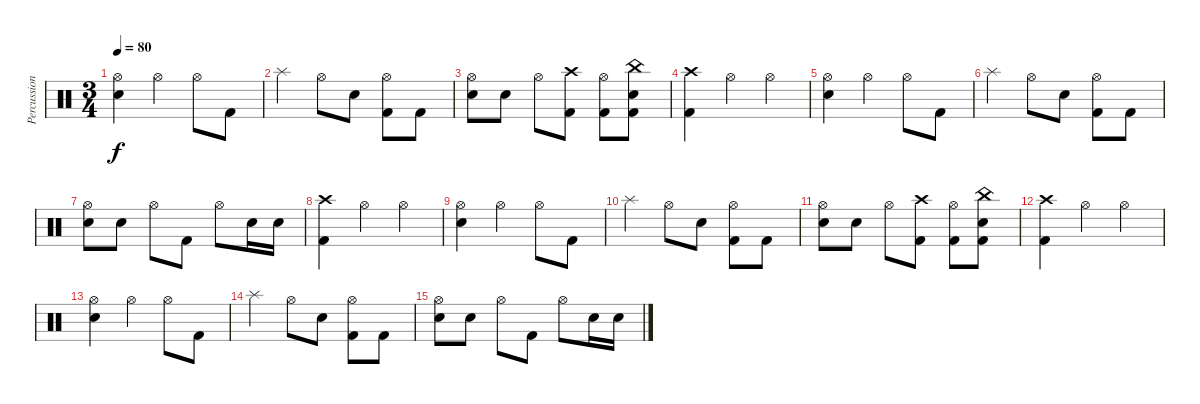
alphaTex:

\track ("Percussion" "Percussion") {instrument percussion}
\staff {score}
\articulation defaults
\ts (3 4)
\tempo 80
\clef neutral
\ks c
("Hi-Hat (open)" "Electric Snare (hit)").4{dy f} "Hi-Hat (open)".4 "Hi-Hat (open)".8 "Kick (hit) 2".8 |
"Splash (hit)".4 "Hi-Hat (open)".8 "Electric Snare (hit)".8 ("Hi-Hat (open)" "Kick (hit) 2").8 "Kick (hit) 2".8 |
("Hi-Hat (open)" "Electric Snare (hit)").8 "Electric Snare (hit)".8 "Hi-Hat (open)".8 ("Crash high (hit)" "Kick (hit) 2").8 ("Hi-Hat (open)" "Kick (hit) 2").8 ("China (hit)" "Electric Snare (hit)" "Kick (hit) 2").8 |
("Crash high (hit)" "Kick (hit) 2").4 "Hi-Hat (open)".4 "Hi-Hat (open)".4 |
("Hi-Hat (open)" "Electric Snare (hit)").4 "Hi-Hat (open)".4 "Hi-Hat (open)".8 "Kick (hit) 2".8 |
"Splash (hit)".4 "Hi-Hat (open)".8 "Electric Snare (hit)".8 ("Hi-Hat (open)" "Kick (hit) 2").8 "Kick (hit) 2".8 |
("Hi-Hat (open)" "Electric Snare (hit)").8 "Electric Snare (hit)".8 "Hi-Hat (open)".8 "Kick (hit) 2".8 "Hi-Hat (open)".8 "Electric Snare (hit)".16 "Electric Snare (hit)".16 |
("Crash high (hit)" "Kick (hit) 2").4 "Hi-Hat (open)".4 "Hi-Hat (open)".4 |
("Hi-Hat (open)" "Electric Snare (hit)").4 "Hi-Hat (open)".4 "Hi-Hat (open)".8 "Kick (hit) 2".8 |
"Splash (hit)".4 "Hi-Hat (open)".8 "Electric Snare (hit)".8 ("Hi-Hat (open)" "Kick (hit) 2").8 "Kick (hit) 2".8 |
("Hi-Hat (open)" "Electric Snare (hit)").8 "Electric Snare (hit)".8 "Hi-Hat (open)".8 ("Crash high (hit)" "Kick (hit) 2").8 ("Hi-Hat (open)" "Kick (hit) 2").8 ("China (hit)" "Electric Snare (hit)" "Kick (hit) 2").8 |
("Crash high (hit)" "Kick (hit) 2").4 "Hi-Hat (open)".4 "Hi-Hat (open)".4 |
("Hi-Hat (open)" "Electric Snare (hit)").4 "Hi-Hat (open)".4 "Hi-Hat (open)".8 "Kick (hit) 2".8 |
"Splash (hit)".4 "Hi-Hat (open)".8 "Electric Snare (hit)".8 ("Hi-Hat (open)" "Kick (hit) 2").8 "Kick (hit) 2".8 |
("Hi-Hat (open)" "Electric Snare (hit)").8 "Electric Snare (hit)".8 "Hi-Hat (open)".8 "Kick (hit) 2".8 "Hi-Hat (open)".8 "Electric Snare (hit)".16 "Electric Snare (hit)".16
